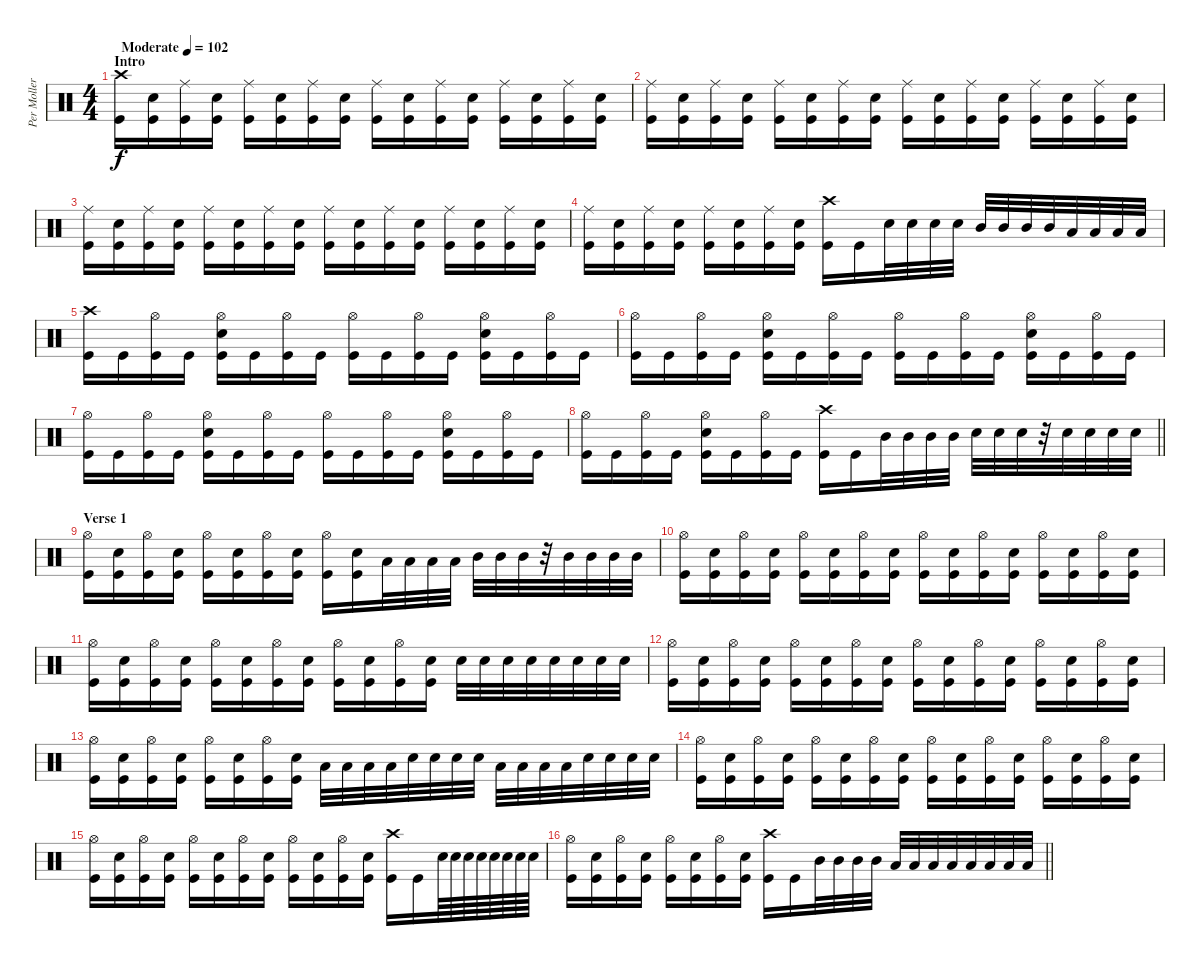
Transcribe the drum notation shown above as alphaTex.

\track ("Per Moller Jensen" "Per Moller") {instrument percussion}
\staff {score}
\articulation defaults
\ts (4 4)
\section ("" "Intro")
\tempo (102 "Moderate")
\clef neutral
\ks c
("Crash high (hit)" "Kick (hit)").16{dy f} ("Snare (hit) 2" "Kick (hit)").16 ("Ride (middle)" "Kick (hit)").16 ("Snare (hit) 2" "Kick (hit)").16 ("Ride (middle)" "Kick (hit)").16 ("Snare (hit) 2" "Kick (hit)").16 ("Ride (middle)" "Kick (hit)").16 ("Snare (hit) 2" "Kick (hit)").16 ("Ride (middle)" "Kick (hit)").16 ("Snare (hit) 2" "Kick (hit)").16 ("Ride (middle)" "Kick (hit)").16 ("Snare (hit) 2" "Kick (hit)").16 ("Ride (middle)" "Kick (hit)").16 ("Snare (hit) 2" "Kick (hit)").16 ("Ride (middle)" "Kick (hit)").16 ("Snare (hit) 2" "Kick (hit)").16 |
("Ride (middle)" "Kick (hit)").16 ("Snare (hit) 2" "Kick (hit)").16 ("Ride (middle)" "Kick (hit)").16 ("Snare (hit) 2" "Kick (hit)").16 ("Ride (middle)" "Kick (hit)").16 ("Snare (hit) 2" "Kick (hit)").16 ("Ride (middle)" "Kick (hit)").16 ("Snare (hit) 2" "Kick (hit)").16 ("Ride (middle)" "Kick (hit)").16 ("Snare (hit) 2" "Kick (hit)").16 ("Ride (middle)" "Kick (hit)").16 ("Snare (hit) 2" "Kick (hit)").16 ("Ride (middle)" "Kick (hit)").16 ("Snare (hit) 2" "Kick (hit)").16 ("Ride (middle)" "Kick (hit)").16 ("Snare (hit) 2" "Kick (hit)").16 |
("Ride (middle)" "Kick (hit)").16 ("Snare (hit) 2" "Kick (hit)").16 ("Ride (middle)" "Kick (hit)").16 ("Snare (hit) 2" "Kick (hit)").16 ("Ride (middle)" "Kick (hit)").16 ("Snare (hit) 2" "Kick (hit)").16 ("Ride (middle)" "Kick (hit)").16 ("Snare (hit) 2" "Kick (hit)").16 ("Ride (middle)" "Kick (hit)").16 ("Snare (hit) 2" "Kick (hit)").16 ("Ride (middle)" "Kick (hit)").16 ("Snare (hit) 2" "Kick (hit)").16 ("Ride (middle)" "Kick (hit)").16 ("Snare (hit) 2" "Kick (hit)").16 ("Ride (middle)" "Kick (hit)").16 ("Snare (hit) 2" "Kick (hit)").16 |
("Ride (middle)" "Kick (hit)").16 ("Snare (hit) 2" "Kick (hit)").16 ("Ride (middle)" "Kick (hit)").16 ("Snare (hit) 2" "Kick (hit)").16 ("Ride (middle)" "Kick (hit)").16 ("Snare (hit) 2" "Kick (hit)").16 ("Ride (middle)" "Kick (hit)").16 ("Snare (hit) 2" "Kick (hit)").16 ("Crash high (hit)" "Kick (hit)").16 "Kick (hit)".16 "Snare (hit) 2".32 "Snare (hit) 2".32 "Snare (hit) 2".32 "Snare (hit) 2".32 "Mid Tom (hit)".32 "Mid Tom (hit)".32 "Mid Tom (hit)".32 "Mid Tom (hit)".32 "Low Tom (hit)".32 "Low Tom (hit)".32 "Low Tom (hit)".32 "Low Tom (hit)".32 |
("Crash high (hit)" "Kick (hit)").16 "Kick (hit)".16 ("Hi-Hat (open)" "Kick (hit)").16 "Kick (hit)".16 ("Hi-Hat (open)" "Snare (hit) 2" "Kick (hit)").16 "Kick (hit)".16 ("Hi-Hat (open)" "Kick (hit)").16 "Kick (hit)".16 ("Hi-Hat (open)" "Kick (hit)").16 "Kick (hit)".16 ("Hi-Hat (open)" "Kick (hit)").16 "Kick (hit)".16 ("Hi-Hat (open)" "Snare (hit) 2" "Kick (hit)").16 "Kick (hit)".16 ("Hi-Hat (open)" "Kick (hit)").16 "Kick (hit)".16 |
("Hi-Hat (open)" "Kick (hit)").16 "Kick (hit)".16 ("Hi-Hat (open)" "Kick (hit)").16 "Kick (hit)".16 ("Hi-Hat (open)" "Snare (hit) 2" "Kick (hit)").16 "Kick (hit)".16 ("Hi-Hat (open)" "Kick (hit)").16 "Kick (hit)".16 ("Hi-Hat (open)" "Kick (hit)").16 "Kick (hit)".16 ("Hi-Hat (open)" "Kick (hit)").16 "Kick (hit)".16 ("Hi-Hat (open)" "Snare (hit) 2" "Kick (hit)").16 "Kick (hit)".16 ("Hi-Hat (open)" "Kick (hit)").16 "Kick (hit)".16 |
("Hi-Hat (open)" "Kick (hit)").16 "Kick (hit)".16 ("Hi-Hat (open)" "Kick (hit)").16 "Kick (hit)".16 ("Hi-Hat (open)" "Snare (hit) 2" "Kick (hit)").16 "Kick (hit)".16 ("Hi-Hat (open)" "Kick (hit)").16 "Kick (hit)".16 ("Hi-Hat (open)" "Kick (hit)").16 "Kick (hit)".16 ("Hi-Hat (open)" "Kick (hit)").16 "Kick (hit)".16 ("Hi-Hat (open)" "Snare (hit) 2" "Kick (hit)").16 "Kick (hit)".16 ("Hi-Hat (open)" "Kick (hit)").16 "Kick (hit)".16 |
\barLineRight lightlight
("Hi-Hat (open)" "Kick (hit)").16 "Kick (hit)".16 ("Hi-Hat (open)" "Kick (hit)").16 "Kick (hit)".16 ("Hi-Hat (open)" "Snare (hit) 2" "Kick (hit)").16 "Kick (hit)".16 ("Hi-Hat (open)" "Kick (hit)").16 "Kick (hit)".16 ("Crash high (hit)" "Kick (hit)").16 "Kick (hit)".16 "Mid Tom (hit)".32 "Mid Tom (hit)".32 "Mid Tom (hit)".32 "Mid Tom (hit)".32 "Snare (hit) 2".32 "Snare (hit) 2".32 "Snare (hit) 2".32 r.32 "Snare (hit) 2".32 "Snare (hit) 2".32 "Snare (hit) 2".32 "Snare (hit) 2".32 |
\section ("" "Verse 1")
("Hi-Hat (open)" "Kick (hit)").16 ("Snare (hit) 2" "Kick (hit)").16 ("Hi-Hat (open)" "Kick (hit)").16 ("Snare (hit) 2" "Kick (hit)").16 ("Hi-Hat (open)" "Kick (hit)").16 ("Snare (hit) 2" "Kick (hit)").16 ("Hi-Hat (open)" "Kick (hit)").16 ("Snare (hit) 2" "Kick (hit)").16 ("Hi-Hat (open)" "Kick (hit)").16 ("Snare (hit) 2" "Kick (hit)").16 "Low Tom (hit)".32 "Low Tom (hit)".32 "Low Tom (hit)".32 "Low Tom (hit)".32 "Mid Tom (hit)".32 "Mid Tom (hit)".32 "Mid Tom (hit)".32 r.32 "Mid Tom (hit)".32 "Mid Tom (hit)".32 "Mid Tom (hit)".32 "Mid Tom (hit)".32 |
("Hi-Hat (open)" "Kick (hit)").16 ("Snare (hit) 2" "Kick (hit)").16 ("Hi-Hat (open)" "Kick (hit)").16 ("Snare (hit) 2" "Kick (hit)").16 ("Hi-Hat (open)" "Kick (hit)").16 ("Snare (hit) 2" "Kick (hit)").16 ("Hi-Hat (open)" "Kick (hit)").16 ("Snare (hit) 2" "Kick (hit)").16 ("Hi-Hat (open)" "Kick (hit)").16 ("Snare (hit) 2" "Kick (hit)").16 ("Hi-Hat (open)" "Kick (hit)").16 ("Snare (hit) 2" "Kick (hit)").16 ("Hi-Hat (open)" "Kick (hit)").16 ("Snare (hit) 2" "Kick (hit)").16 ("Hi-Hat (open)" "Kick (hit)").16 ("Snare (hit) 2" "Kick (hit)").16 |
("Hi-Hat (open)" "Kick (hit)").16 ("Snare (hit) 2" "Kick (hit)").16 ("Hi-Hat (open)" "Kick (hit)").16 ("Snare (hit) 2" "Kick (hit)").16 ("Hi-Hat (open)" "Kick (hit)").16 ("Snare (hit) 2" "Kick (hit)").16 ("Hi-Hat (open)" "Kick (hit)").16 ("Snare (hit) 2" "Kick (hit)").16 ("Hi-Hat (open)" "Kick (hit)").16 ("Snare (hit) 2" "Kick (hit)").16 ("Hi-Hat (open)" "Kick (hit)").16 ("Snare (hit) 2" "Kick (hit)").16 "Snare (hit) 2".32 "Snare (hit) 2".32 "Snare (hit) 2".32 "Snare (hit) 2".32 "Snare (hit) 2".32 "Snare (hit) 2".32 "Snare (hit) 2".32 "Snare (hit) 2".32 |
("Hi-Hat (open)" "Kick (hit)").16 ("Snare (hit) 2" "Kick (hit)").16 ("Hi-Hat (open)" "Kick (hit)").16 ("Snare (hit) 2" "Kick (hit)").16 ("Hi-Hat (open)" "Kick (hit)").16 ("Snare (hit) 2" "Kick (hit)").16 ("Hi-Hat (open)" "Kick (hit)").16 ("Snare (hit) 2" "Kick (hit)").16 ("Hi-Hat (open)" "Kick (hit)").16 ("Snare (hit) 2" "Kick (hit)").16 ("Hi-Hat (open)" "Kick (hit)").16 ("Snare (hit) 2" "Kick (hit)").16 ("Hi-Hat (open)" "Kick (hit)").16 ("Snare (hit) 2" "Kick (hit)").16 ("Hi-Hat (open)" "Kick (hit)").16 ("Snare (hit) 2" "Kick (hit)").16 |
("Hi-Hat (open)" "Kick (hit)").16 ("Snare (hit) 2" "Kick (hit)").16 ("Hi-Hat (open)" "Kick (hit)").16 ("Snare (hit) 2" "Kick (hit)").16 ("Hi-Hat (open)" "Kick (hit)").16 ("Snare (hit) 2" "Kick (hit)").16 ("Hi-Hat (open)" "Kick (hit)").16 ("Snare (hit) 2" "Kick (hit)").16 "Low Tom (hit)".32 "Low Tom (hit)".32 "Low Tom (hit)".32 "Low Tom (hit)".32 "Snare (hit) 2".32 "Snare (hit) 2".32 "Snare (hit) 2".32 "Snare (hit) 2".32 "Low Tom (hit)".32 "Low Tom (hit)".32 "Low Tom (hit)".32 "Low Tom (hit)".32 "Snare (hit) 2".32 "Snare (hit) 2".32 "Snare (hit) 2".32 "Snare (hit) 2".32 |
("Hi-Hat (open)" "Kick (hit)").16 ("Snare (hit) 2" "Kick (hit)").16 ("Hi-Hat (open)" "Kick (hit)").16 ("Snare (hit) 2" "Kick (hit)").16 ("Hi-Hat (open)" "Kick (hit)").16 ("Snare (hit) 2" "Kick (hit)").16 ("Hi-Hat (open)" "Kick (hit)").16 ("Snare (hit) 2" "Kick (hit)").16 ("Hi-Hat (open)" "Kick (hit)").16 ("Snare (hit) 2" "Kick (hit)").16 ("Hi-Hat (open)" "Kick (hit)").16 ("Snare (hit) 2" "Kick (hit)").16 ("Hi-Hat (open)" "Kick (hit)").16 ("Snare (hit) 2" "Kick (hit)").16 ("Hi-Hat (open)" "Kick (hit)").16 ("Snare (hit) 2" "Kick (hit)").16 |
("Hi-Hat (open)" "Kick (hit)").16 ("Snare (hit) 2" "Kick (hit)").16 ("Hi-Hat (open)" "Kick (hit)").16 ("Snare (hit) 2" "Kick (hit)").16 ("Hi-Hat (open)" "Kick (hit)").16 ("Snare (hit) 2" "Kick (hit)").16 ("Hi-Hat (open)" "Kick (hit)").16 ("Snare (hit) 2" "Kick (hit)").16 ("Hi-Hat (open)" "Kick (hit)").16 ("Snare (hit) 2" "Kick (hit)").16 ("Hi-Hat (open)" "Kick (hit)").16 ("Snare (hit) 2" "Kick (hit)").16 ("Crash high (hit)" "Kick (hit)").16 "Kick (hit)".16 "Snare (hit) 2".64 "Snare (hit) 2".64 "Snare (hit) 2".64 "Snare (hit) 2".64 "Snare (hit) 2".64 "Snare (hit) 2".64 "Snare (hit) 2".64 "Snare (hit) 2".64 |
\barLineRight lightlight
("Hi-Hat (open)" "Kick (hit)").16 ("Snare (hit) 2" "Kick (hit)").16 ("Hi-Hat (open)" "Kick (hit)").16 ("Snare (hit) 2" "Kick (hit)").16 ("Hi-Hat (open)" "Kick (hit)").16 ("Snare (hit) 2" "Kick (hit)").16 ("Hi-Hat (open)" "Kick (hit)").16 ("Snare (hit) 2" "Kick (hit)").16 ("Crash high (hit)" "Kick (hit)").16 "Kick (hit)".16 "Mid Tom (hit)".32 "Mid Tom (hit)".32 "Mid Tom (hit)".32 "Mid Tom (hit)".32 "Low Tom (hit)".32 "Low Tom (hit)".32 "Low Tom (hit)".32 "Low Tom (hit)".32 "Low Tom (hit)".32 "Low Tom (hit)".32 "Low Tom (hit)".32 "Low Tom (hit)".32
